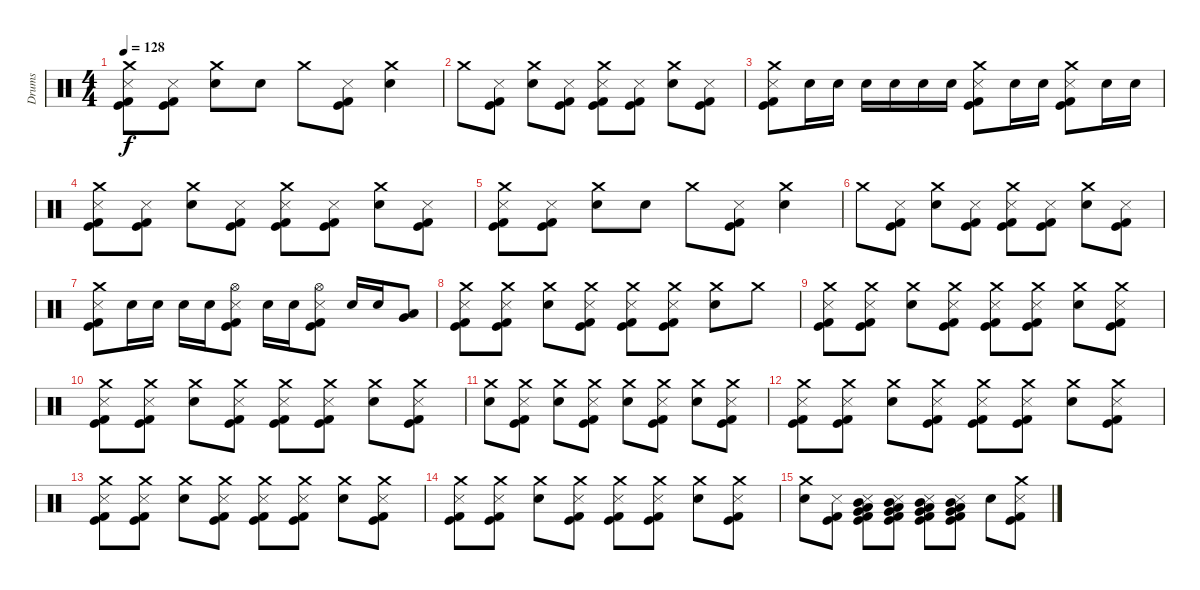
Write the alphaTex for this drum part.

\track ("Drums" "Drums") {instrument percussion}
\staff {score}
\articulation defaults
\ts (4 4)
\tempo 128
\clef neutral
\ks c
("Crash medium (hit)" "Metronome (hit)" "Kick (hit)" "Kick (hit) 2").8{dy f} ("Metronome (hit)" "Kick (hit)" "Kick (hit) 2").8 ("Snare (hit) 2" "Crash medium (hit)").8 "Snare (hit) 2".8 "Crash medium (hit)".8 ("Metronome (hit)" "Kick (hit)" "Kick (hit) 2").8 ("Snare (hit) 2" "Crash medium (hit)").4 |
"Crash medium (hit)".8 ("Metronome (hit)" "Kick (hit)" "Kick (hit) 2").8 ("Snare (hit) 2" "Crash medium (hit)").8 ("Metronome (hit)" "Kick (hit)" "Kick (hit) 2").8 ("Crash medium (hit)" "Metronome (hit)" "Kick (hit)" "Kick (hit) 2").8 ("Metronome (hit)" "Kick (hit)" "Kick (hit) 2").8 ("Snare (hit) 2" "Crash medium (hit)").8 ("Metronome (hit)" "Kick (hit)" "Kick (hit) 2").8 |
("Crash medium (hit)" "Metronome (hit)" "Kick (hit)" "Kick (hit) 2").8 "Snare (hit) 2".16 "Snare (hit) 2".16 "Snare (hit) 2".16 "Snare (hit) 2".16 "Snare (hit) 2".16 "Snare (hit) 2".16 ("Crash medium (hit)" "Metronome (hit)" "Kick (hit)" "Kick (hit) 2").8 "Snare (hit) 2".16 "Snare (hit) 2".16 ("Crash medium (hit)" "Metronome (hit)" "Kick (hit)" "Kick (hit) 2").8 "Snare (hit) 2".16 "Snare (hit) 2".16 |
("Crash medium (hit)" "Metronome (hit)" "Kick (hit)" "Kick (hit) 2").8 ("Metronome (hit)" "Kick (hit)" "Kick (hit) 2").8 ("Snare (hit) 2" "Crash medium (hit)").8 ("Metronome (hit)" "Kick (hit)" "Kick (hit) 2").8 ("Crash medium (hit)" "Metronome (hit)" "Kick (hit)" "Kick (hit) 2").8 ("Metronome (hit)" "Kick (hit)" "Kick (hit) 2").8 ("Snare (hit) 2" "Crash medium (hit)").8 ("Metronome (hit)" "Kick (hit)" "Kick (hit) 2").8 |
("Crash medium (hit)" "Metronome (hit)" "Kick (hit)" "Kick (hit) 2").8 ("Metronome (hit)" "Kick (hit)" "Kick (hit) 2").8 ("Snare (hit) 2" "Crash medium (hit)").8 "Snare (hit) 2".8 "Crash medium (hit)".8 ("Metronome (hit)" "Kick (hit)" "Kick (hit) 2").8 ("Snare (hit) 2" "Crash medium (hit)").4 |
"Crash medium (hit)".8 ("Metronome (hit)" "Kick (hit)" "Kick (hit) 2").8 ("Snare (hit) 2" "Crash medium (hit)").8 ("Metronome (hit)" "Kick (hit)" "Kick (hit) 2").8 ("Crash medium (hit)" "Metronome (hit)" "Kick (hit)" "Kick (hit) 2").8 ("Metronome (hit)" "Kick (hit)" "Kick (hit) 2").8 ("Snare (hit) 2" "Crash medium (hit)").8 ("Metronome (hit)" "Kick (hit)" "Kick (hit) 2").8 |
("Crash medium (hit)" "Metronome (hit)" "Kick (hit)" "Kick (hit) 2").8 "Snare (hit) 2".16 "Snare (hit) 2".16 "Snare (hit) 2".16 "Snare (hit) 2".16 ("Hi-Hat (open)" "Metronome (hit)" "Kick (hit)" "Kick (hit) 2").8 "Snare (hit) 2".16 "Snare (hit) 2".16 ("Hi-Hat (open)" "Metronome (hit)" "Kick (hit)" "Kick (hit) 2").8 "Snare (hit) 2".16 "Snare (hit) 2".16 ("Very Low Tom (hit)" "Low Tom (hit)").8 |
("Crash medium (hit)" "Metronome (hit)" "Kick (hit)" "Kick (hit) 2").8 ("Crash medium (hit)" "Metronome (hit)" "Kick (hit)" "Kick (hit) 2").8 ("Snare (hit) 2" "Crash medium (hit)").8 ("Crash medium (hit)" "Metronome (hit)" "Kick (hit)" "Kick (hit) 2").8 ("Crash medium (hit)" "Metronome (hit)" "Kick (hit)" "Kick (hit) 2").8 ("Crash medium (hit)" "Metronome (hit)" "Kick (hit)" "Kick (hit) 2").8 ("Snare (hit) 2" "Crash medium (hit)").8 "Crash medium (hit)".8 |
("Crash medium (hit)" "Metronome (hit)" "Kick (hit)" "Kick (hit) 2").8 ("Crash medium (hit)" "Metronome (hit)" "Kick (hit)" "Kick (hit) 2").8 ("Snare (hit) 2" "Crash medium (hit)").8 ("Crash medium (hit)" "Metronome (hit)" "Kick (hit)" "Kick (hit) 2").8 ("Crash medium (hit)" "Metronome (hit)" "Kick (hit)" "Kick (hit) 2").8 ("Crash medium (hit)" "Metronome (hit)" "Kick (hit)" "Kick (hit) 2").8 ("Snare (hit) 2" "Crash medium (hit)").8 ("Crash medium (hit)" "Metronome (hit)" "Kick (hit)" "Kick (hit) 2").8 |
("Crash medium (hit)" "Metronome (hit)" "Kick (hit)" "Kick (hit) 2").8 ("Crash medium (hit)" "Metronome (hit)" "Kick (hit)" "Kick (hit) 2").8 ("Snare (hit) 2" "Crash medium (hit)").8 ("Crash medium (hit)" "Metronome (hit)" "Kick (hit)" "Kick (hit) 2").8 ("Crash medium (hit)" "Metronome (hit)" "Kick (hit)" "Kick (hit) 2").8 ("Crash medium (hit)" "Metronome (hit)" "Kick (hit)" "Kick (hit) 2").8 ("Snare (hit) 2" "Crash medium (hit)").8 ("Crash medium (hit)" "Metronome (hit)" "Kick (hit)" "Kick (hit) 2").8 |
("Snare (hit) 2" "Crash medium (hit)").8 ("Crash medium (hit)" "Metronome (hit)" "Kick (hit)" "Kick (hit) 2").8 ("Snare (hit) 2" "Crash medium (hit)").8 ("Crash medium (hit)" "Metronome (hit)" "Kick (hit)" "Kick (hit) 2").8 ("Snare (hit) 2" "Crash medium (hit)").8 ("Crash medium (hit)" "Metronome (hit)" "Kick (hit)" "Kick (hit) 2").8 ("Snare (hit) 2" "Crash medium (hit)").8 ("Crash medium (hit)" "Metronome (hit)" "Kick (hit)" "Kick (hit) 2").8 |
("Crash medium (hit)" "Metronome (hit)" "Kick (hit)" "Kick (hit) 2").8 ("Crash medium (hit)" "Metronome (hit)" "Kick (hit)" "Kick (hit) 2").8 ("Snare (hit) 2" "Crash medium (hit)").8 ("Crash medium (hit)" "Metronome (hit)" "Kick (hit)" "Kick (hit) 2").8 ("Crash medium (hit)" "Metronome (hit)" "Kick (hit)" "Kick (hit) 2").8 ("Crash medium (hit)" "Metronome (hit)" "Kick (hit)" "Kick (hit) 2").8 ("Snare (hit) 2" "Crash medium (hit)").8 ("Crash medium (hit)" "Metronome (hit)" "Kick (hit)" "Kick (hit) 2").8 |
("Crash medium (hit)" "Metronome (hit)" "Kick (hit)" "Kick (hit) 2").8 ("Crash medium (hit)" "Metronome (hit)" "Kick (hit)" "Kick (hit) 2").8 ("Snare (hit) 2" "Crash medium (hit)").8 ("Crash medium (hit)" "Metronome (hit)" "Kick (hit)" "Kick (hit) 2").8 ("Crash medium (hit)" "Metronome (hit)" "Kick (hit)" "Kick (hit) 2").8 ("Crash medium (hit)" "Metronome (hit)" "Kick (hit)" "Kick (hit) 2").8 ("Snare (hit) 2" "Crash medium (hit)").8 ("Crash medium (hit)" "Metronome (hit)" "Kick (hit)" "Kick (hit) 2").8 |
("Crash medium (hit)" "Metronome (hit)" "Kick (hit)" "Kick (hit) 2").8 ("Crash medium (hit)" "Metronome (hit)" "Kick (hit)" "Kick (hit) 2").8 ("Snare (hit) 2" "Crash medium (hit)").8 ("Crash medium (hit)" "Metronome (hit)" "Kick (hit)" "Kick (hit) 2").8 ("Crash medium (hit)" "Metronome (hit)" "Kick (hit)" "Kick (hit) 2").8 ("Crash medium (hit)" "Metronome (hit)" "Kick (hit)" "Kick (hit) 2").8 ("Snare (hit) 2" "Crash medium (hit)").8 ("Crash medium (hit)" "Metronome (hit)" "Kick (hit)" "Kick (hit) 2").8 |
("Snare (hit) 2" "Crash medium (hit)").8 ("Metronome (hit)" "Kick (hit)" "Kick (hit) 2").8 ("Very Low Tom (hit)" "Low Tom (hit)" "Mid Tom (hit)" "Metronome (hit)" "Kick (hit)" "Kick (hit) 2").8 ("Very Low Tom (hit)" "Low Tom (hit)" "Mid Tom (hit)" "Metronome (hit)" "Kick (hit)" "Kick (hit) 2").8 ("Very Low Tom (hit)" "Low Tom (hit)" "Mid Tom (hit)" "Metronome (hit)" "Kick (hit)" "Kick (hit) 2").8 ("Very Low Tom (hit)" "Low Tom (hit)" "Mid Tom (hit)" "Metronome (hit)" "Kick (hit)" "Kick (hit) 2").8 "Snare (hit) 2".8 ("Crash medium (hit)" "Metronome (hit)" "Kick (hit)" "Kick (hit) 2").8
